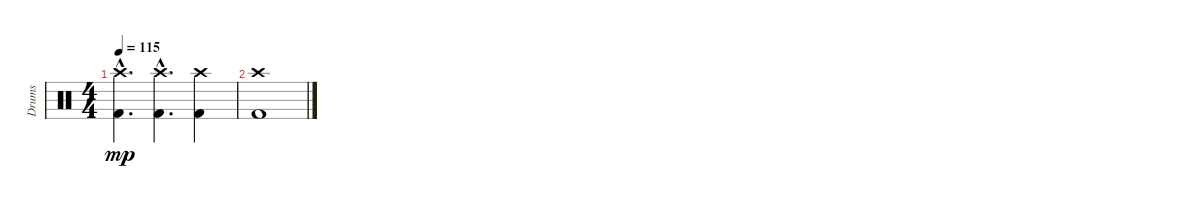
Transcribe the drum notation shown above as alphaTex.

\track ("Drums" "Drums") {instrument percussion}
\staff {score}
\articulation defaults
\ts (4 4)
\tempo 115
\clef neutral
\ks c
("Crash high (hit)"{hac} "Kick (hit) 2"{hac}).4{d dy mp} ("Crash high (hit)"{hac} "Kick (hit) 2"{hac}).4{d} ("Crash high (hit)" "Kick (hit) 2").4 |
("Crash high (hit)" "Kick (hit) 2").1
